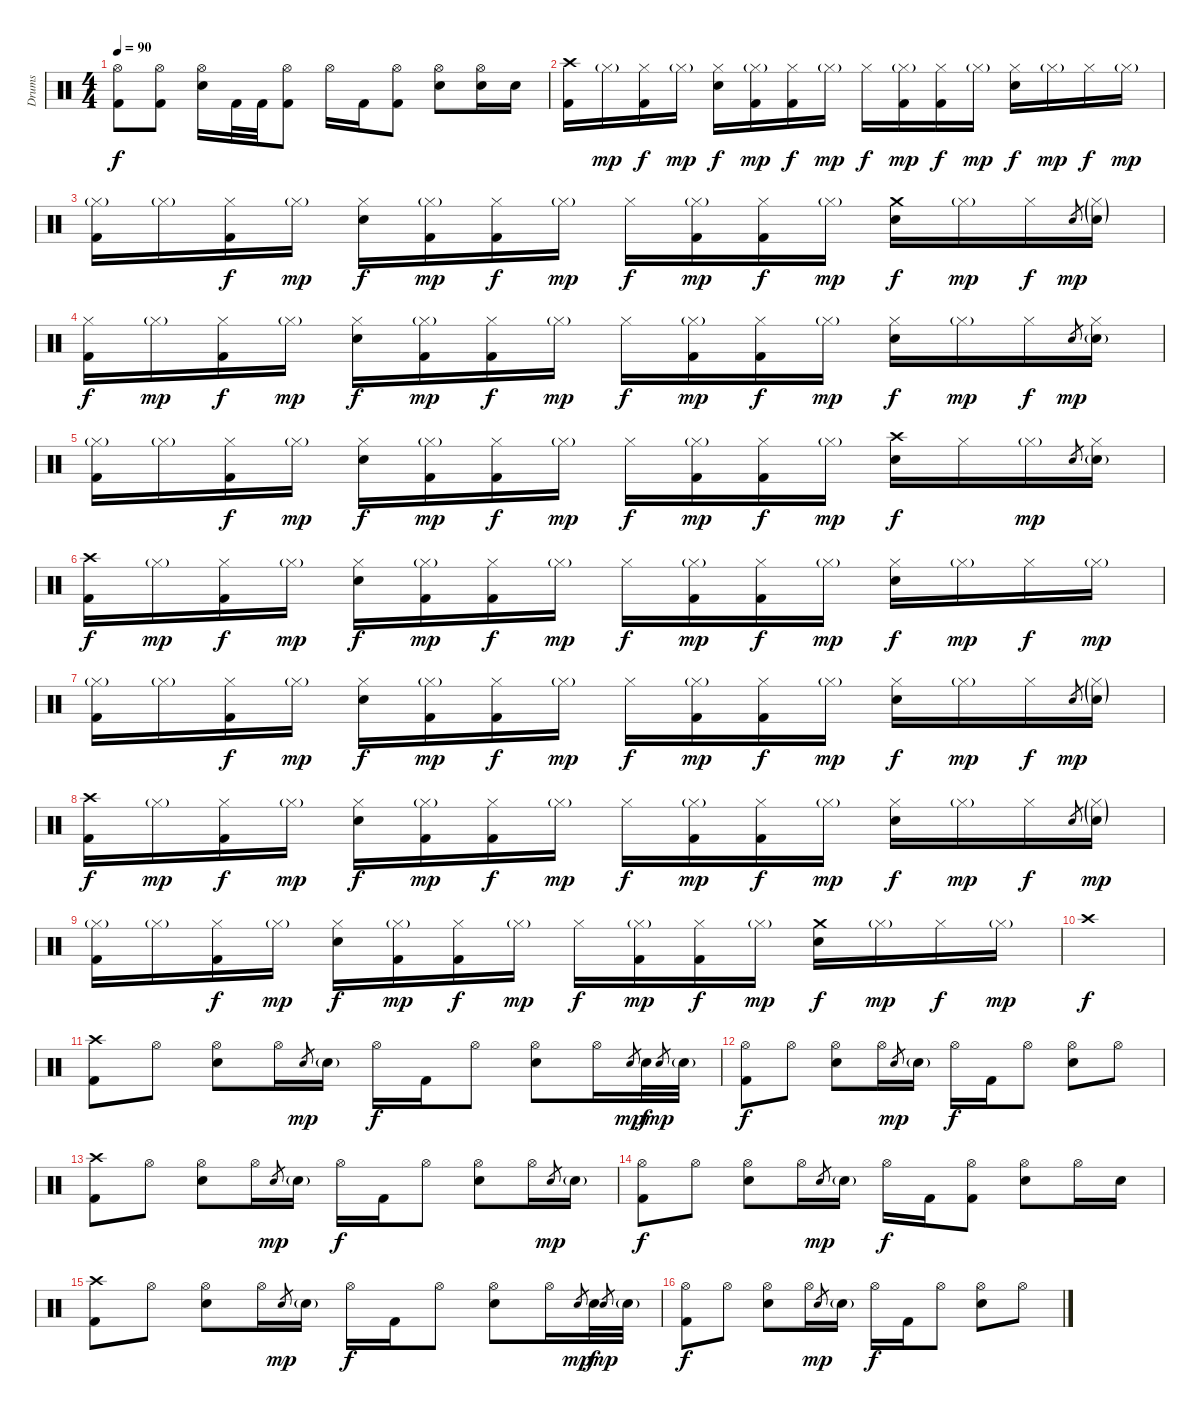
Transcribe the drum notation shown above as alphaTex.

\track ("Drums" "Drums") {instrument percussion}
\staff {score}
\articulation defaults
\ts (4 4)
\tempo 90
\clef neutral
\ks c
("Hi-Hat (open)" "Kick (hit) 2").8{dy f} ("Hi-Hat (open)" "Kick (hit) 2").8 ("Hi-Hat (open)" "Electric Snare (hit)").16 "Kick (hit) 2".32 "Kick (hit) 2".32 ("Hi-Hat (open)" "Kick (hit) 2").8 "Hi-Hat (open)".16 "Kick (hit) 2".16 ("Hi-Hat (open)" "Kick (hit) 2").8 ("Hi-Hat (open)" "Electric Snare (hit)").8 ("Hi-Hat (open)" "Electric Snare (hit)").16 "Electric Snare (hit)".16 |
("Crash high (hit)" "Kick (hit) 2").16 "Hi-Hat (closed)"{g}.16{dy mp} ("Hi-Hat (closed)" "Kick (hit) 2").16{dy f} "Hi-Hat (closed)"{g}.16{dy mp} ("Hi-Hat (closed)" "Electric Snare (hit)").16{dy f} ("Hi-Hat (closed)"{g} "Kick (hit) 2").16{dy mp} ("Hi-Hat (closed)" "Kick (hit) 2").16{dy f} "Hi-Hat (closed)"{g}.16{dy mp} "Hi-Hat (closed)".16{dy f} ("Hi-Hat (closed)"{g} "Kick (hit) 2").16{dy mp} ("Hi-Hat (closed)" "Kick (hit) 2").16{dy f} "Hi-Hat (closed)"{g}.16{dy mp} ("Hi-Hat (closed)" "Electric Snare (hit)").16{dy f} "Hi-Hat (closed)"{g}.16{dy mp} "Hi-Hat (closed)".16{dy f} "Hi-Hat (closed)"{g}.16{dy mp} |
("Hi-Hat (closed)"{g} "Kick (hit) 2").16 "Hi-Hat (closed)"{g}.16 ("Hi-Hat (closed)" "Kick (hit) 2").16{dy f} "Hi-Hat (closed)"{g}.16{dy mp} ("Hi-Hat (closed)" "Electric Snare (hit)").16{dy f} ("Hi-Hat (closed)"{g} "Kick (hit) 2").16{dy mp} ("Hi-Hat (closed)" "Kick (hit) 2").16{dy f} "Hi-Hat (closed)"{g}.16{dy mp} "Hi-Hat (closed)".16{dy f} ("Hi-Hat (closed)"{g} "Kick (hit) 2").16{dy mp} ("Hi-Hat (closed)" "Kick (hit) 2").16{dy f} "Hi-Hat (closed)"{g}.16{dy mp} ("Crash medium (hit)" "Electric Snare (hit)").16{dy f} "Hi-Hat (closed)"{g}.16{dy mp} "Hi-Hat (closed)".16{dy f} "Electric Snare (hit)"{x}.8{gr dy mp} ("Hi-Hat (closed)"{g} "Electric Snare (hit)"{g}).16 |
("Hi-Hat (closed)" "Kick (hit) 2").16{dy f} "Hi-Hat (closed)"{g}.16{dy mp} ("Hi-Hat (closed)" "Kick (hit) 2").16{dy f} "Hi-Hat (closed)"{g}.16{dy mp} ("Hi-Hat (closed)" "Electric Snare (hit)").16{dy f} ("Hi-Hat (closed)"{g} "Kick (hit) 2").16{dy mp} ("Hi-Hat (closed)" "Kick (hit) 2").16{dy f} "Hi-Hat (closed)"{g}.16{dy mp} "Hi-Hat (closed)".16{dy f} ("Hi-Hat (closed)"{g} "Kick (hit) 2").16{dy mp} ("Hi-Hat (closed)" "Kick (hit) 2").16{dy f} "Hi-Hat (closed)"{g}.16{dy mp} ("Hi-Hat (closed)" "Electric Snare (hit)").16{dy f} "Hi-Hat (closed)"{g}.16{dy mp} "Hi-Hat (closed)".16{dy f} "Electric Snare (hit)".8{gr dy mp} ("Hi-Hat (closed)" "Electric Snare (hit)"{g}).16 |
("Hi-Hat (closed)"{g} "Kick (hit) 2").16 "Hi-Hat (closed)"{g}.16 ("Hi-Hat (closed)" "Kick (hit) 2").16{dy f} "Hi-Hat (closed)"{g}.16{dy mp} ("Hi-Hat (closed)" "Electric Snare (hit)").16{dy f} ("Hi-Hat (closed)"{g} "Kick (hit) 2").16{dy mp} ("Hi-Hat (closed)" "Kick (hit) 2").16{dy f} "Hi-Hat (closed)"{g}.16{dy mp} "Hi-Hat (closed)".16{dy f} ("Hi-Hat (closed)"{g} "Kick (hit) 2").16{dy mp} ("Hi-Hat (closed)" "Kick (hit) 2").16{dy f} "Hi-Hat (closed)"{g}.16{dy mp} ("Crash high (hit)" "Electric Snare (hit)").16{dy f} "Hi-Hat (closed)".16 "Hi-Hat (closed)"{g}.16{dy mp} "Electric Snare (hit)"{x}.8{gr} ("Hi-Hat (closed)" "Electric Snare (hit)"{g}).16 |
("Crash high (hit)" "Kick (hit) 2").16{dy f} "Hi-Hat (closed)"{g}.16{dy mp} ("Hi-Hat (closed)" "Kick (hit) 2").16{dy f} "Hi-Hat (closed)"{g}.16{dy mp} ("Hi-Hat (closed)" "Electric Snare (hit)").16{dy f} ("Hi-Hat (closed)"{g} "Kick (hit) 2").16{dy mp} ("Hi-Hat (closed)" "Kick (hit) 2").16{dy f} "Hi-Hat (closed)"{g}.16{dy mp} "Hi-Hat (closed)".16{dy f} ("Hi-Hat (closed)"{g} "Kick (hit) 2").16{dy mp} ("Hi-Hat (closed)" "Kick (hit) 2").16{dy f} "Hi-Hat (closed)"{g}.16{dy mp} ("Hi-Hat (closed)" "Electric Snare (hit)").16{dy f} "Hi-Hat (closed)"{g}.16{dy mp} "Hi-Hat (closed)".16{dy f} "Hi-Hat (closed)"{g}.16{dy mp} |
("Hi-Hat (closed)"{g} "Kick (hit) 2").16 "Hi-Hat (closed)"{g}.16 ("Hi-Hat (closed)" "Kick (hit) 2").16{dy f} "Hi-Hat (closed)"{g}.16{dy mp} ("Hi-Hat (closed)" "Electric Snare (hit)").16{dy f} ("Hi-Hat (closed)"{g} "Kick (hit) 2").16{dy mp} ("Hi-Hat (closed)" "Kick (hit) 2").16{dy f} "Hi-Hat (closed)"{g}.16{dy mp} "Hi-Hat (closed)".16{dy f} ("Hi-Hat (closed)"{g} "Kick (hit) 2").16{dy mp} ("Hi-Hat (closed)" "Kick (hit) 2").16{dy f} "Hi-Hat (closed)"{g}.16{dy mp} ("Hi-Hat (closed)" "Electric Snare (hit)").16{dy f} "Hi-Hat (closed)"{g}.16{dy mp} "Hi-Hat (closed)".16{dy f} "Electric Snare (hit)".8{gr dy mp} ("Hi-Hat (closed)"{g} "Electric Snare (hit)"{g}).16 |
("Crash high (hit)" "Kick (hit) 2").16{dy f} "Hi-Hat (closed)"{g}.16{dy mp} ("Hi-Hat (closed)" "Kick (hit) 2").16{dy f} "Hi-Hat (closed)"{g}.16{dy mp} ("Hi-Hat (closed)" "Electric Snare (hit)").16{dy f} ("Hi-Hat (closed)"{g} "Kick (hit) 2").16{dy mp} ("Hi-Hat (closed)" "Kick (hit) 2").16{dy f} "Hi-Hat (closed)"{g}.16{dy mp} "Hi-Hat (closed)".16{dy f} ("Hi-Hat (closed)"{g} "Kick (hit) 2").16{dy mp} ("Hi-Hat (closed)" "Kick (hit) 2").16{dy f} "Hi-Hat (closed)"{g}.16{dy mp} ("Hi-Hat (closed)" "Electric Snare (hit)").16{dy f} "Hi-Hat (closed)"{g}.16{dy mp} "Hi-Hat (closed)".16{dy f} "Electric Snare (hit)".8{gr} ("Hi-Hat (closed)"{g} "Electric Snare (hit)"{g}).16{dy mp} |
("Hi-Hat (closed)"{g} "Kick (hit) 2").16 "Hi-Hat (closed)"{g}.16 ("Hi-Hat (closed)" "Kick (hit) 2").16{dy f} "Hi-Hat (closed)"{g}.16{dy mp} ("Hi-Hat (closed)" "Electric Snare (hit)").16{dy f} ("Hi-Hat (closed)"{g} "Kick (hit) 2").16{dy mp} ("Hi-Hat (closed)" "Kick (hit) 2").16{dy f} "Hi-Hat (closed)"{g}.16{dy mp} "Hi-Hat (closed)".16{dy f} ("Hi-Hat (closed)"{g} "Kick (hit) 2").16{dy mp} ("Hi-Hat (closed)" "Kick (hit) 2").16{dy f} "Hi-Hat (closed)"{g}.16{dy mp} ("Crash medium (hit)" "Electric Snare (hit)").16{dy f} "Hi-Hat (closed)"{g}.16{dy mp} "Hi-Hat (closed)".16{dy f} "Hi-Hat (closed)"{g}.16{dy mp} |
"Crash high (hit)".1{dy f} |
("Crash high (hit)" "Kick (hit) 2").8 "Hi-Hat (open)".8 ("Hi-Hat (open)" "Electric Snare (hit)").8 "Hi-Hat (open)".16 "Electric Snare (hit)"{x}.8{gr dy mp} "Electric Snare (hit)"{g}.16 "Hi-Hat (open)".16{dy f} "Kick (hit) 2".16 "Hi-Hat (open)".8 ("Hi-Hat (open)" "Electric Snare (hit)").8 "Hi-Hat (open)".16 "Electric Snare (hit)"{x}.8{gr dy mp} "Electric Snare (hit)".32{dy f} "Electric Snare (hit)"{x}.8{gr dy mp} "Electric Snare (hit)"{g}.32 |
("Hi-Hat (open)" "Kick (hit) 2").8{dy f} "Hi-Hat (open)".8 ("Hi-Hat (open)" "Electric Snare (hit)").8 "Hi-Hat (open)".16 "Electric Snare (hit)"{x}.8{gr dy mp} "Electric Snare (hit)"{g}.16 "Hi-Hat (open)".16{dy f} "Kick (hit) 2".16 "Hi-Hat (open)".8 ("Hi-Hat (open)" "Electric Snare (hit)").8 "Hi-Hat (open)".8 |
("Crash high (hit)" "Kick (hit) 2").8 "Hi-Hat (open)".8 ("Hi-Hat (open)" "Electric Snare (hit)").8 "Hi-Hat (open)".16 "Electric Snare (hit)"{x}.8{gr dy mp} "Electric Snare (hit)"{g}.16 "Hi-Hat (open)".16{dy f} "Kick (hit) 2".16 "Hi-Hat (open)".8 ("Hi-Hat (open)" "Electric Snare (hit)").8 "Hi-Hat (open)".16 "Electric Snare (hit)".8{gr dy mp} "Electric Snare (hit)"{g}.16 |
("Hi-Hat (open)" "Kick (hit) 2").8{dy f} "Hi-Hat (open)".8 ("Hi-Hat (open)" "Electric Snare (hit)").8 "Hi-Hat (open)".16 "Electric Snare (hit)"{x}.8{gr dy mp} "Electric Snare (hit)"{g}.16 "Hi-Hat (open)".16{dy f} "Kick (hit) 2".16 ("Hi-Hat (open)" "Kick (hit) 2").8 ("Hi-Hat (open)" "Electric Snare (hit)").8 "Hi-Hat (open)".16 "Electric Snare (hit)".16 |
("Crash high (hit)" "Kick (hit) 2").8 "Hi-Hat (open)".8 ("Hi-Hat (open)" "Electric Snare (hit)").8 "Hi-Hat (open)".16 "Electric Snare (hit)"{x}.8{gr dy mp} "Electric Snare (hit)"{g}.16 "Hi-Hat (open)".16{dy f} "Kick (hit) 2".16 "Hi-Hat (open)".8 ("Hi-Hat (open)" "Electric Snare (hit)").8 "Hi-Hat (open)".16 "Electric Snare (hit)"{x}.8{gr dy mp} "Electric Snare (hit)".32{dy f} "Electric Snare (hit)"{x}.8{gr dy mp} "Electric Snare (hit)"{g}.32 |
("Hi-Hat (open)" "Kick (hit) 2").8{dy f} "Hi-Hat (open)".8 ("Hi-Hat (open)" "Electric Snare (hit)").8 "Hi-Hat (open)".16 "Electric Snare (hit)"{x}.8{gr dy mp} "Electric Snare (hit)"{g}.16 "Hi-Hat (open)".16{dy f} "Kick (hit) 2".16 "Hi-Hat (open)".8 ("Hi-Hat (open)" "Electric Snare (hit)").8 "Hi-Hat (open)".8
